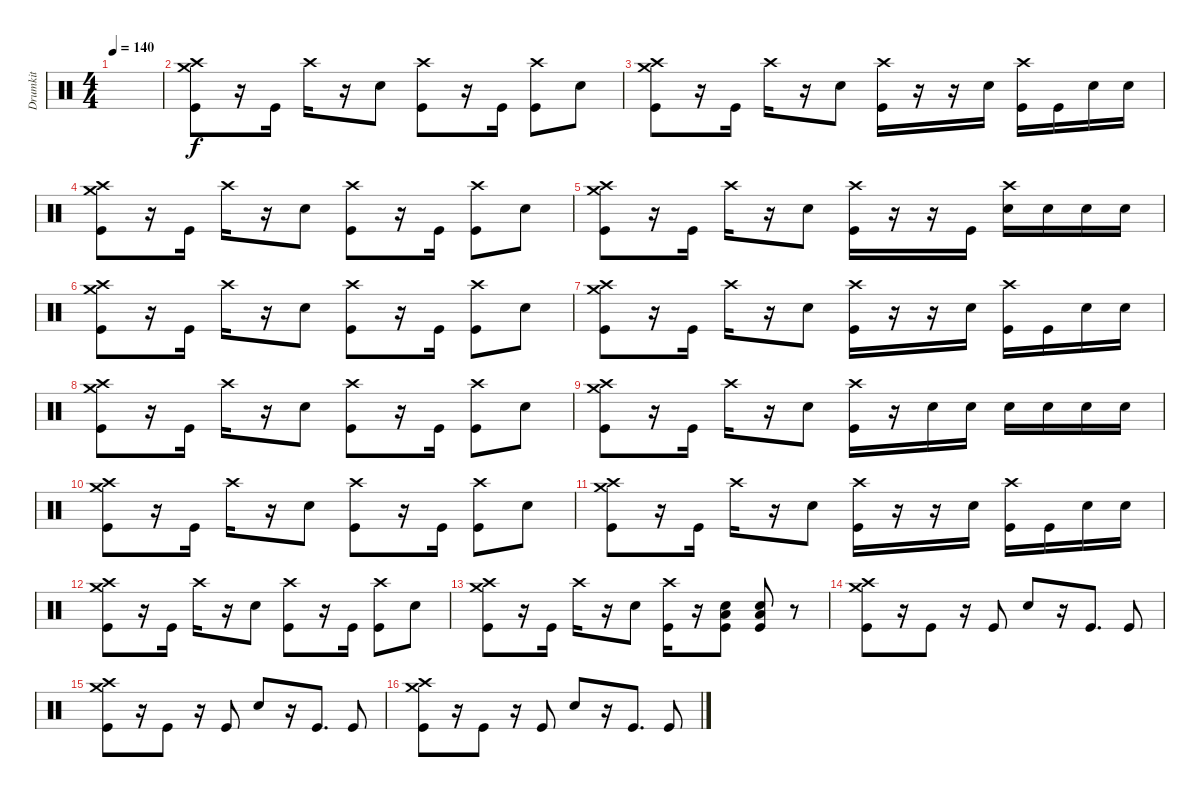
\track ("Drumkit" "Drumkit") {instrument percussion}
\staff {score}
\articulation defaults
\ts (4 4)
\tempo 140
\clef neutral
\ks c
|
("Crash high (hit)" "Crash medium (hit)" "Kick (hit)").8 r.16 "Kick (hit)".16 "Crash high (hit)".16 r.16 "Snare (hit) 2".8 ("Kick (hit)" "Crash high (hit)").8 r.16 "Kick (hit)".16 ("Kick (hit)" "Crash high (hit)").8 "Snare (hit) 2".8 |
("Crash high (hit)" "Crash medium (hit)" "Kick (hit)").8 r.16 "Kick (hit)".16 "Crash high (hit)".16 r.16 "Snare (hit) 2".8 ("Kick (hit)" "Crash high (hit)").16 r.16 r.16 "Snare (hit) 2".16 ("Kick (hit)" "Crash high (hit)").16 "Kick (hit)".16 "Snare (hit) 2".16 "Snare (hit) 2".16 |
("Crash high (hit)" "Crash medium (hit)" "Kick (hit)").8 r.16 "Kick (hit)".16 "Crash high (hit)".16 r.16 "Snare (hit) 2".8 ("Kick (hit)" "Crash high (hit)").8 r.16 "Kick (hit)".16 ("Kick (hit)" "Crash high (hit)").8 "Snare (hit) 2".8 |
("Crash high (hit)" "Crash medium (hit)" "Kick (hit)").8 r.16 "Kick (hit)".16 "Crash high (hit)".16 r.16 "Snare (hit) 2".8 ("Kick (hit)" "Crash high (hit)").16 r.16 r.16 "Kick (hit)".16 ("Crash high (hit)" "Snare (hit) 2").16 "Snare (hit) 2".16 "Snare (hit) 2".16 "Snare (hit) 2".16 |
("Crash high (hit)" "Crash medium (hit)" "Kick (hit)").8 r.16 "Kick (hit)".16 "Crash high (hit)".16 r.16 "Snare (hit) 2".8 ("Kick (hit)" "Crash high (hit)").8 r.16 "Kick (hit)".16 ("Kick (hit)" "Crash high (hit)").8 "Snare (hit) 2".8 |
("Crash high (hit)" "Crash medium (hit)" "Kick (hit)").8 r.16 "Kick (hit)".16 "Crash high (hit)".16 r.16 "Snare (hit) 2".8 ("Kick (hit)" "Crash high (hit)").16 r.16 r.16 "Snare (hit) 2".16 ("Kick (hit)" "Crash high (hit)").16 "Kick (hit)".16 "Snare (hit) 2".16 "Snare (hit) 2".16 |
("Crash high (hit)" "Crash medium (hit)" "Kick (hit)").8 r.16 "Kick (hit)".16 "Crash high (hit)".16 r.16 "Snare (hit) 2".8 ("Kick (hit)" "Crash high (hit)").8 r.16 "Kick (hit)".16 ("Kick (hit)" "Crash high (hit)").8 "Snare (hit) 2".8 |
("Crash high (hit)" "Crash medium (hit)" "Kick (hit)").8 r.16 "Kick (hit)".16 "Crash high (hit)".16 r.16 "Snare (hit) 2".8 ("Kick (hit)" "Crash high (hit)").16 r.16 "Snare (hit) 2".16 "Snare (hit) 2".16 "Snare (hit) 2".16 "Snare (hit) 2".16 "Snare (hit) 2".16 "Snare (hit) 2".16 |
("Crash high (hit)" "Crash medium (hit)" "Kick (hit)").8 r.16 "Kick (hit)".16 "Crash high (hit)".16 r.16 "Snare (hit) 2".8 ("Kick (hit)" "Crash high (hit)").8 r.16 "Kick (hit)".16 ("Kick (hit)" "Crash high (hit)").8 "Snare (hit) 2".8 |
("Crash high (hit)" "Crash medium (hit)" "Kick (hit)").8 r.16 "Kick (hit)".16 "Crash high (hit)".16 r.16 "Snare (hit) 2".8 ("Kick (hit)" "Crash high (hit)").16 r.16 r.16 "Snare (hit) 2".16 ("Kick (hit)" "Crash high (hit)").16 "Kick (hit)".16 "Snare (hit) 2".16 "Snare (hit) 2".16 |
("Crash high (hit)" "Crash medium (hit)" "Kick (hit)").8 r.16 "Kick (hit)".16 "Crash high (hit)".16 r.16 "Snare (hit) 2".8 ("Kick (hit)" "Crash high (hit)").8 r.16 "Kick (hit)".16 ("Kick (hit)" "Crash high (hit)").8 "Snare (hit) 2".8 |
("Crash high (hit)" "Crash medium (hit)" "Kick (hit)").8 r.16 "Kick (hit)".16 "Crash high (hit)".16 r.16 "Snare (hit) 2".8 ("Kick (hit)" "Crash high (hit)").16 r.16 ("Snare (hit) 2" "Low Tom (hit)" "Kick (hit)").8 ("Kick (hit)" "Low Tom (hit)" "Snare (hit) 2").8 r.8 |
("Crash high (hit)" "Crash medium (hit)" "Kick (hit)").8 r.16 "Kick (hit)".8 r.16 "Kick (hit)".8 "Snare (hit) 2".8 r.16 "Kick (hit)".8{d} "Kick (hit)".8 |
("Crash high (hit)" "Crash medium (hit)" "Kick (hit)").8 r.16 "Kick (hit)".8 r.16 "Kick (hit)".8 "Snare (hit) 2".8 r.16 "Kick (hit)".8{d} "Kick (hit)".8 |
("Crash high (hit)" "Crash medium (hit)" "Kick (hit)").8 r.16 "Kick (hit)".8 r.16 "Kick (hit)".8 "Snare (hit) 2".8 r.16 "Kick (hit)".8{d} "Kick (hit)".8
